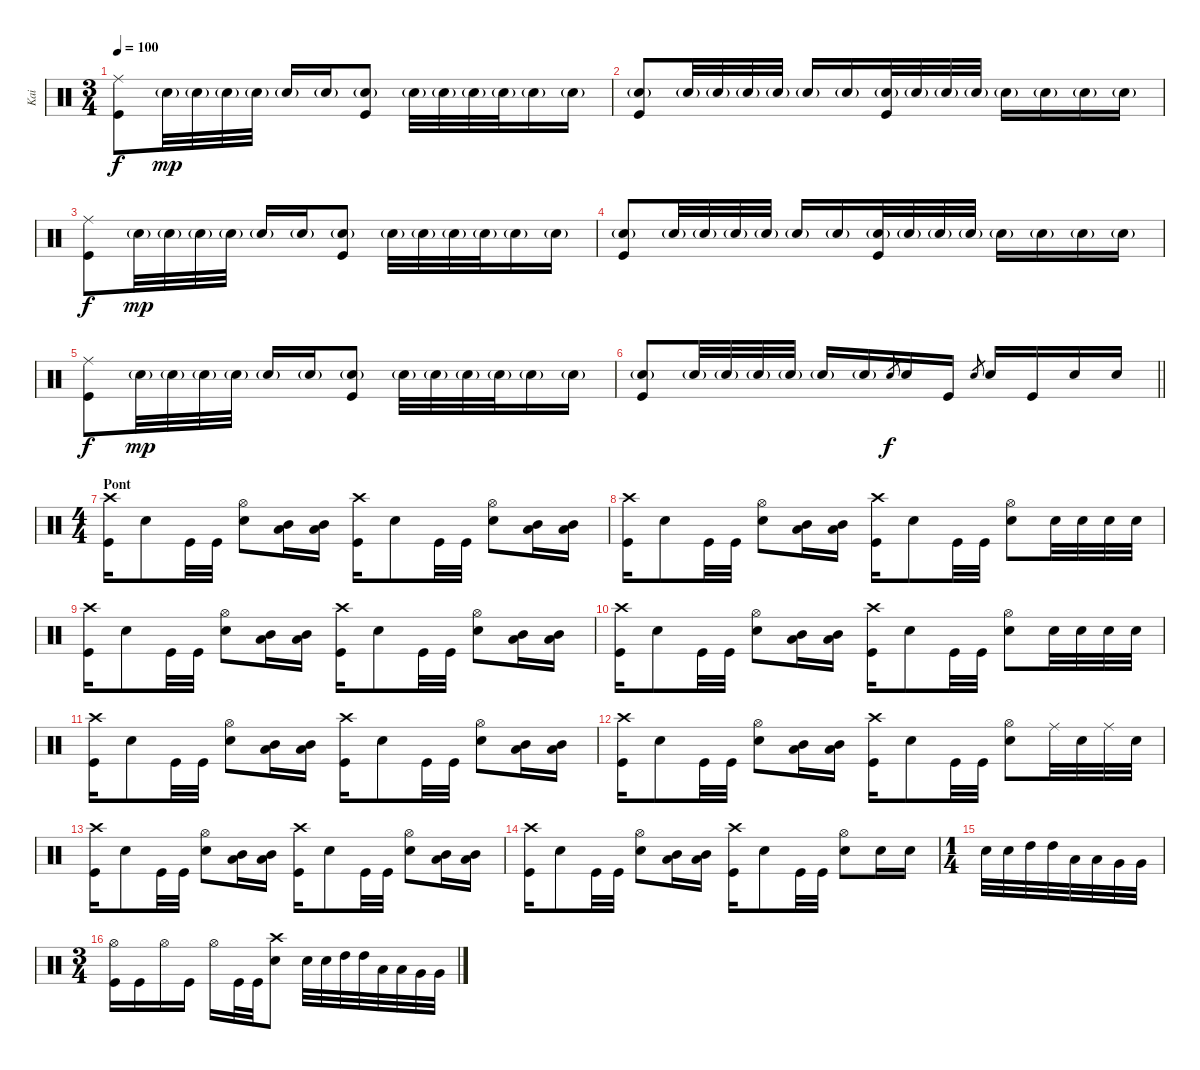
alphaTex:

\track ("Kai" "Kai") {instrument percussion}
\staff {score}
\articulation defaults
\ts (3 4)
\tempo 100
\clef neutral
\ks c
("Ride (middle)" "Kick (hit)").8{dy f} "Snare (hit) 2"{g}.32{dy mp} "Snare (hit) 2"{g}.32 "Snare (hit) 2"{g}.32 "Snare (hit) 2"{g}.32 "Snare (hit) 2"{g}.16 "Snare (hit) 2"{g}.16 ("Snare (hit) 2"{g} "Kick (hit)").8 "Snare (hit) 2"{g}.32 "Snare (hit) 2"{g}.32 "Snare (hit) 2"{g}.32 "Snare (hit) 2"{g}.32 "Snare (hit) 2"{g}.16 "Snare (hit) 2"{g}.16 |
("Snare (hit) 2"{g} "Kick (hit)").8 "Snare (hit) 2"{g}.32 "Snare (hit) 2"{g}.32 "Snare (hit) 2"{g}.32 "Snare (hit) 2"{g}.32 "Snare (hit) 2"{g}.16 "Snare (hit) 2"{g}.16 ("Snare (hit) 2"{g} "Kick (hit)").32 "Snare (hit) 2"{g}.32 "Snare (hit) 2"{g}.32 "Snare (hit) 2"{g}.32 "Snare (hit) 2"{g}.16 "Snare (hit) 2"{g}.16 "Snare (hit) 2"{g}.16 "Snare (hit) 2"{g}.16 |
("Ride (middle)" "Kick (hit)").8{dy f} "Snare (hit) 2"{g}.32{dy mp} "Snare (hit) 2"{g}.32 "Snare (hit) 2"{g}.32 "Snare (hit) 2"{g}.32 "Snare (hit) 2"{g}.16 "Snare (hit) 2"{g}.16 ("Snare (hit) 2"{g} "Kick (hit)").8 "Snare (hit) 2"{g}.32 "Snare (hit) 2"{g}.32 "Snare (hit) 2"{g}.32 "Snare (hit) 2"{g}.32 "Snare (hit) 2"{g}.16 "Snare (hit) 2"{g}.16 |
("Snare (hit) 2"{g} "Kick (hit)").8 "Snare (hit) 2"{g}.32 "Snare (hit) 2"{g}.32 "Snare (hit) 2"{g}.32 "Snare (hit) 2"{g}.32 "Snare (hit) 2"{g}.16 "Snare (hit) 2"{g}.16 ("Snare (hit) 2"{g} "Kick (hit)").32 "Snare (hit) 2"{g}.32 "Snare (hit) 2"{g}.32 "Snare (hit) 2"{g}.32 "Snare (hit) 2"{g}.16 "Snare (hit) 2"{g}.16 "Snare (hit) 2"{g}.16 "Snare (hit) 2"{g}.16 |
("Ride (middle)" "Kick (hit)").8{dy f} "Snare (hit) 2"{g}.32{dy mp} "Snare (hit) 2"{g}.32 "Snare (hit) 2"{g}.32 "Snare (hit) 2"{g}.32 "Snare (hit) 2"{g}.16 "Snare (hit) 2"{g}.16 ("Snare (hit) 2"{g} "Kick (hit)").8 "Snare (hit) 2"{g}.32 "Snare (hit) 2"{g}.32 "Snare (hit) 2"{g}.32 "Snare (hit) 2"{g}.32 "Snare (hit) 2"{g}.16 "Snare (hit) 2"{g}.16 |
\barLineRight lightlight
("Snare (hit) 2"{g} "Kick (hit)").8 "Snare (hit) 2"{g}.32 "Snare (hit) 2"{g}.32 "Snare (hit) 2"{g}.32 "Snare (hit) 2"{g}.32 "Snare (hit) 2"{g}.16 "Snare (hit) 2"{g}.16 "Snare (hit) 2".8{gr dy f} "Snare (hit) 2".16 "Kick (hit)".16 "Snare (hit) 2".8{gr} "Snare (hit) 2".16 "Kick (hit)".16 "Snare (hit) 2".16 "Snare (hit) 2".16 |
\ts (4 4)
\section ("" "Pont")
("Crash high (hit)" "Kick (hit)").16 "Snare (hit) 2".8 "Kick (hit)".32 "Kick (hit)".32 ("Hi-Hat (open)" "Snare (hit) 2").8 ("Low Tom (hit)" "Mid Tom (hit)").16 ("Low Tom (hit)" "Mid Tom (hit)").16 ("Crash high (hit)" "Kick (hit)").16 "Snare (hit) 2".8 "Kick (hit)".32 "Kick (hit)".32 ("Hi-Hat (open)" "Snare (hit) 2").8 ("Low Tom (hit)" "Mid Tom (hit)").16 ("Low Tom (hit)" "Mid Tom (hit)").16 |
("Crash high (hit)" "Kick (hit)").16 "Snare (hit) 2".8 "Kick (hit)".32 "Kick (hit)".32 ("Hi-Hat (open)" "Snare (hit) 2").8 ("Low Tom (hit)" "Mid Tom (hit)").16 ("Low Tom (hit)" "Mid Tom (hit)").16 ("Crash high (hit)" "Kick (hit)").16 "Snare (hit) 2".8 "Kick (hit)".32 "Kick (hit)".32 ("Hi-Hat (open)" "Snare (hit) 2").8 "Snare (hit) 2".32 "Snare (hit) 2".32 "Snare (hit) 2".32 "Snare (hit) 2".32 |
("Crash high (hit)" "Kick (hit)").16 "Snare (hit) 2".8 "Kick (hit)".32 "Kick (hit)".32 ("Hi-Hat (open)" "Snare (hit) 2").8 ("Low Tom (hit)" "Mid Tom (hit)").16 ("Low Tom (hit)" "Mid Tom (hit)").16 ("Crash high (hit)" "Kick (hit)").16 "Snare (hit) 2".8 "Kick (hit)".32 "Kick (hit)".32 ("Hi-Hat (open)" "Snare (hit) 2").8 ("Low Tom (hit)" "Mid Tom (hit)").16 ("Low Tom (hit)" "Mid Tom (hit)").16 |
("Crash high (hit)" "Kick (hit)").16 "Snare (hit) 2".8 "Kick (hit)".32 "Kick (hit)".32 ("Hi-Hat (open)" "Snare (hit) 2").8 ("Low Tom (hit)" "Mid Tom (hit)").16 ("Low Tom (hit)" "Mid Tom (hit)").16 ("Crash high (hit)" "Kick (hit)").16 "Snare (hit) 2".8 "Kick (hit)".32 "Kick (hit)".32 ("Hi-Hat (open)" "Snare (hit) 2").8 "Snare (hit) 2".32 "Snare (hit) 2".32 "Snare (hit) 2".32 "Snare (hit) 2".32 |
("Crash high (hit)" "Kick (hit)").16 "Snare (hit) 2".8 "Kick (hit)".32 "Kick (hit)".32 ("Hi-Hat (open)" "Snare (hit) 2").8 ("Low Tom (hit)" "Mid Tom (hit)").16 ("Low Tom (hit)" "Mid Tom (hit)").16 ("Crash high (hit)" "Kick (hit)").16 "Snare (hit) 2".8 "Kick (hit)".32 "Kick (hit)".32 ("Hi-Hat (open)" "Snare (hit) 2").8 ("Low Tom (hit)" "Mid Tom (hit)").16 ("Low Tom (hit)" "Mid Tom (hit)").16 |
("Crash high (hit)" "Kick (hit)").16 "Snare (hit) 2".8 "Kick (hit)".32 "Kick (hit)".32 ("Hi-Hat (open)" "Snare (hit) 2").8 ("Low Tom (hit)" "Mid Tom (hit)").16 ("Low Tom (hit)" "Mid Tom (hit)").16 ("Crash high (hit)" "Kick (hit)").16 "Snare (hit) 2".8 "Kick (hit)".32 "Kick (hit)".32 ("Hi-Hat (open)" "Snare (hit) 2").8 "Ride (middle)".32 "Snare (hit) 2".32 "Ride (middle)".32 "Snare (hit) 2".32 |
("Crash high (hit)" "Kick (hit)").16 "Snare (hit) 2".8 "Kick (hit)".32 "Kick (hit)".32 ("Hi-Hat (open)" "Snare (hit) 2").8 ("Low Tom (hit)" "Mid Tom (hit)").16 ("Low Tom (hit)" "Mid Tom (hit)").16 ("Crash high (hit)" "Kick (hit)").16 "Snare (hit) 2".8 "Kick (hit)".32 "Kick (hit)".32 ("Hi-Hat (open)" "Snare (hit) 2").8 ("Low Tom (hit)" "Mid Tom (hit)").16 ("Low Tom (hit)" "Mid Tom (hit)").16 |
("Crash high (hit)" "Kick (hit)").16 "Snare (hit) 2".8 "Kick (hit)".32 "Kick (hit)".32 ("Hi-Hat (open)" "Snare (hit) 2").8 ("Low Tom (hit)" "Mid Tom (hit)").16 ("Low Tom (hit)" "Mid Tom (hit)").16 ("Crash high (hit)" "Kick (hit)").16 "Snare (hit) 2".8 "Kick (hit)".32 "Kick (hit)".32 ("Hi-Hat (open)" "Snare (hit) 2").8 "Snare (hit) 2".16 "Snare (hit) 2".16 |
\ts (1 4)
"Snare (hit) 2".32 "Snare (hit) 2".32 "High Tom (hit)".32 "High Tom (hit)".32 "Low Tom (hit)".32 "Low Tom (hit)".32 "Very Low Tom (hit)".32 "Very Low Tom (hit)".32 |
\ts (3 4)
("Hi-Hat (open)" "Kick (hit)").16 "Kick (hit)".16 "Hi-Hat (open)".16 "Kick (hit)".16 "Hi-Hat (open)".16 "Kick (hit)".32 "Kick (hit)".32 ("Crash high (hit)" "Snare (hit) 2").8 "Snare (hit) 2".32 "Snare (hit) 2".32 "High Tom (hit)".32 "High Tom (hit)".32 "Low Tom (hit)".32 "Low Tom (hit)".32 "Very Low Tom (hit)".32 "Very Low Tom (hit)".32
